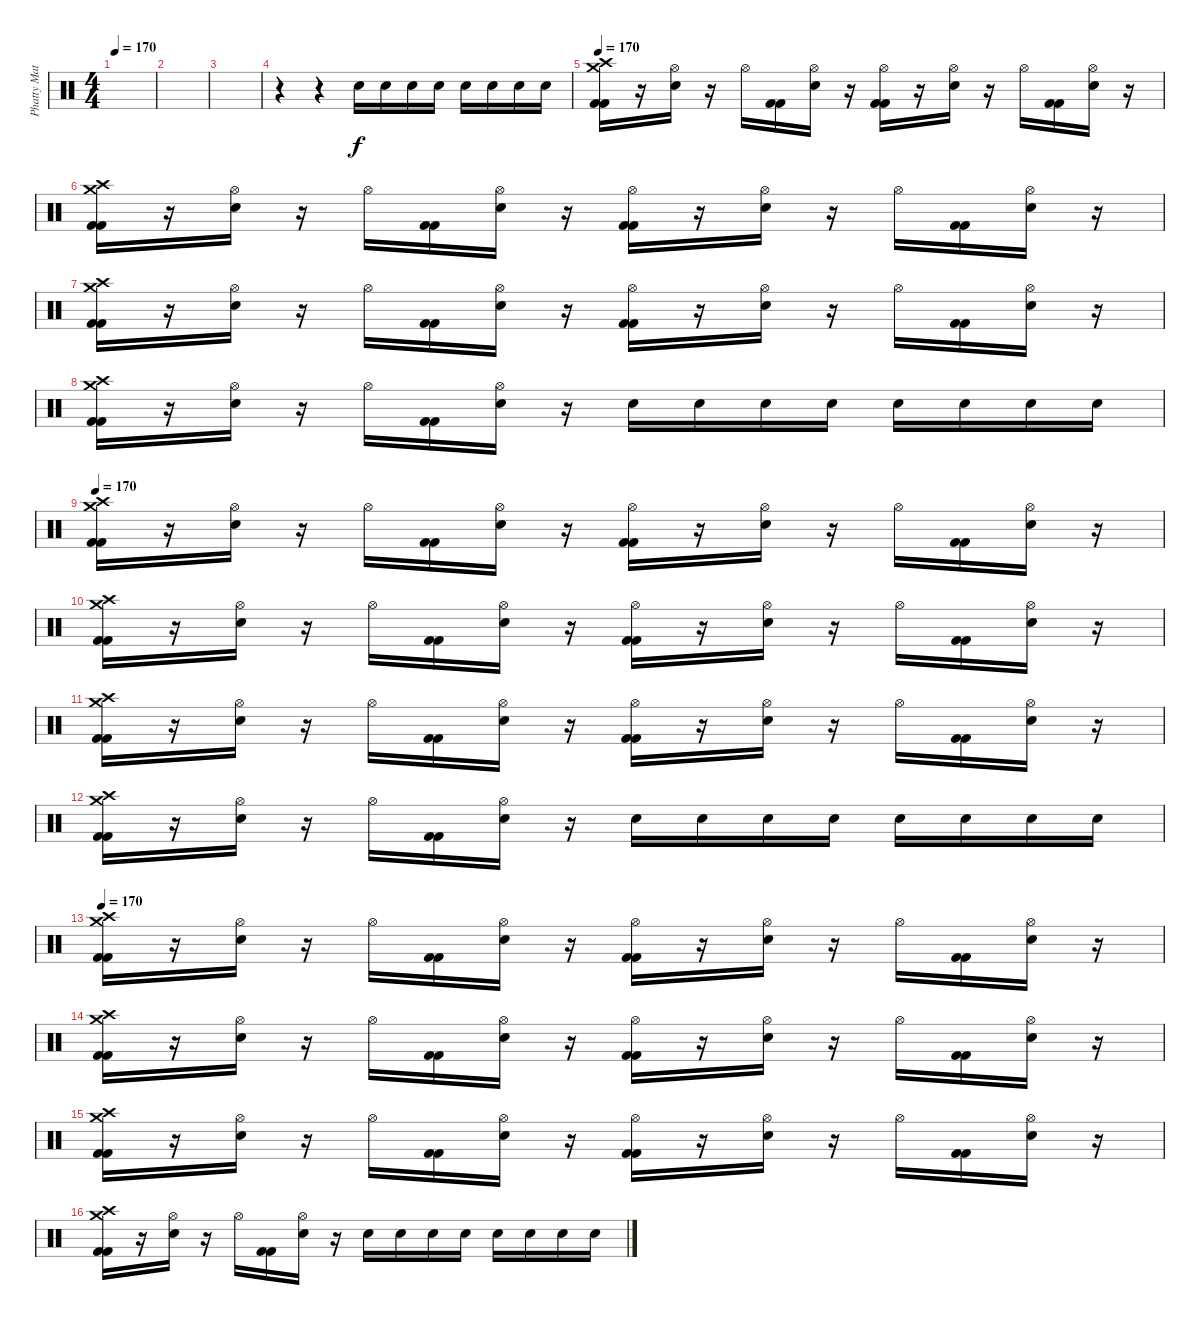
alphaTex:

\track ("Phatty Matty Withrow (Drums)" "Phatty Mat") {instrument percussion}
\staff {score}
\articulation defaults
\ts (4 4)
\tempo 170
\clef neutral
\ks c
|
|
|
r.4 r.4 "Electric Snare (hit)".16 "Electric Snare (hit)".16 "Electric Snare (hit)".16 "Electric Snare (hit)".16 "Electric Snare (hit)".16 "Electric Snare (hit)".16 "Electric Snare (hit)".16 "Electric Snare (hit)".16 |
\tempo 170
("Crash medium (hit)" "Crash high (hit)" "Kick (hit) 2" "Kick (hit) 2").16 r.16 ("Hi-Hat (open)" "Electric Snare (hit)").16 r.16 "Hi-Hat (open)".16 ("Kick (hit) 2" "Kick (hit) 2").16 ("Hi-Hat (open)" "Electric Snare (hit)").16 r.16 ("Hi-Hat (open)" "Kick (hit) 2" "Kick (hit) 2").16 r.16 ("Hi-Hat (open)" "Electric Snare (hit)").16 r.16 "Hi-Hat (open)".16 ("Kick (hit) 2" "Kick (hit) 2").16 ("Hi-Hat (open)" "Electric Snare (hit)").16 r.16 |
("Crash medium (hit)" "Crash high (hit)" "Kick (hit) 2" "Kick (hit) 2").16 r.16 ("Hi-Hat (open)" "Electric Snare (hit)").16 r.16 "Hi-Hat (open)".16 ("Kick (hit) 2" "Kick (hit) 2").16 ("Hi-Hat (open)" "Electric Snare (hit)").16 r.16 ("Hi-Hat (open)" "Kick (hit) 2" "Kick (hit) 2").16 r.16 ("Hi-Hat (open)" "Electric Snare (hit)").16 r.16 "Hi-Hat (open)".16 ("Kick (hit) 2" "Kick (hit) 2").16 ("Hi-Hat (open)" "Electric Snare (hit)").16 r.16 |
("Crash medium (hit)" "Crash high (hit)" "Kick (hit) 2" "Kick (hit) 2").16 r.16 ("Hi-Hat (open)" "Electric Snare (hit)").16 r.16 "Hi-Hat (open)".16 ("Kick (hit) 2" "Kick (hit) 2").16 ("Hi-Hat (open)" "Electric Snare (hit)").16 r.16 ("Hi-Hat (open)" "Kick (hit) 2" "Kick (hit) 2").16 r.16 ("Hi-Hat (open)" "Electric Snare (hit)").16 r.16 "Hi-Hat (open)".16 ("Kick (hit) 2" "Kick (hit) 2").16 ("Hi-Hat (open)" "Electric Snare (hit)").16 r.16 |
("Crash medium (hit)" "Crash high (hit)" "Kick (hit) 2" "Kick (hit) 2").16 r.16 ("Hi-Hat (open)" "Electric Snare (hit)").16 r.16 "Hi-Hat (open)".16 ("Kick (hit) 2" "Kick (hit) 2").16 ("Hi-Hat (open)" "Electric Snare (hit)").16 r.16 "Electric Snare (hit)".16 "Electric Snare (hit)".16 "Electric Snare (hit)".16 "Electric Snare (hit)".16 "Electric Snare (hit)".16 "Electric Snare (hit)".16 "Electric Snare (hit)".16 "Electric Snare (hit)".16 |
\tempo 170
("Crash medium (hit)" "Crash high (hit)" "Kick (hit) 2" "Kick (hit) 2").16 r.16 ("Hi-Hat (open)" "Electric Snare (hit)").16 r.16 "Hi-Hat (open)".16 ("Kick (hit) 2" "Kick (hit) 2").16 ("Hi-Hat (open)" "Electric Snare (hit)").16 r.16 ("Hi-Hat (open)" "Kick (hit) 2" "Kick (hit) 2").16 r.16 ("Hi-Hat (open)" "Electric Snare (hit)").16 r.16 "Hi-Hat (open)".16 ("Kick (hit) 2" "Kick (hit) 2").16 ("Hi-Hat (open)" "Electric Snare (hit)").16 r.16 |
("Crash medium (hit)" "Crash high (hit)" "Kick (hit) 2" "Kick (hit) 2").16 r.16 ("Hi-Hat (open)" "Electric Snare (hit)").16 r.16 "Hi-Hat (open)".16 ("Kick (hit) 2" "Kick (hit) 2").16 ("Hi-Hat (open)" "Electric Snare (hit)").16 r.16 ("Hi-Hat (open)" "Kick (hit) 2" "Kick (hit) 2").16 r.16 ("Hi-Hat (open)" "Electric Snare (hit)").16 r.16 "Hi-Hat (open)".16 ("Kick (hit) 2" "Kick (hit) 2").16 ("Hi-Hat (open)" "Electric Snare (hit)").16 r.16 |
("Crash medium (hit)" "Crash high (hit)" "Kick (hit) 2" "Kick (hit) 2").16 r.16 ("Hi-Hat (open)" "Electric Snare (hit)").16 r.16 "Hi-Hat (open)".16 ("Kick (hit) 2" "Kick (hit) 2").16 ("Hi-Hat (open)" "Electric Snare (hit)").16 r.16 ("Hi-Hat (open)" "Kick (hit) 2" "Kick (hit) 2").16 r.16 ("Hi-Hat (open)" "Electric Snare (hit)").16 r.16 "Hi-Hat (open)".16 ("Kick (hit) 2" "Kick (hit) 2").16 ("Hi-Hat (open)" "Electric Snare (hit)").16 r.16 |
("Crash medium (hit)" "Crash high (hit)" "Kick (hit) 2" "Kick (hit) 2").16 r.16 ("Hi-Hat (open)" "Electric Snare (hit)").16 r.16 "Hi-Hat (open)".16 ("Kick (hit) 2" "Kick (hit) 2").16 ("Hi-Hat (open)" "Electric Snare (hit)").16 r.16 "Electric Snare (hit)".16 "Electric Snare (hit)".16 "Electric Snare (hit)".16 "Electric Snare (hit)".16 "Electric Snare (hit)".16 "Electric Snare (hit)".16 "Electric Snare (hit)".16 "Electric Snare (hit)".16 |
\tempo 170
("Crash medium (hit)" "Crash high (hit)" "Kick (hit) 2" "Kick (hit) 2").16 r.16 ("Hi-Hat (open)" "Electric Snare (hit)").16 r.16 "Hi-Hat (open)".16 ("Kick (hit) 2" "Kick (hit) 2").16 ("Hi-Hat (open)" "Electric Snare (hit)").16 r.16 ("Hi-Hat (open)" "Kick (hit) 2" "Kick (hit) 2").16 r.16 ("Hi-Hat (open)" "Electric Snare (hit)").16 r.16 "Hi-Hat (open)".16 ("Kick (hit) 2" "Kick (hit) 2").16 ("Hi-Hat (open)" "Electric Snare (hit)").16 r.16 |
("Crash medium (hit)" "Crash high (hit)" "Kick (hit) 2" "Kick (hit) 2").16 r.16 ("Hi-Hat (open)" "Electric Snare (hit)").16 r.16 "Hi-Hat (open)".16 ("Kick (hit) 2" "Kick (hit) 2").16 ("Hi-Hat (open)" "Electric Snare (hit)").16 r.16 ("Hi-Hat (open)" "Kick (hit) 2" "Kick (hit) 2").16 r.16 ("Hi-Hat (open)" "Electric Snare (hit)").16 r.16 "Hi-Hat (open)".16 ("Kick (hit) 2" "Kick (hit) 2").16 ("Hi-Hat (open)" "Electric Snare (hit)").16 r.16 |
("Crash medium (hit)" "Crash high (hit)" "Kick (hit) 2" "Kick (hit) 2").16 r.16 ("Hi-Hat (open)" "Electric Snare (hit)").16 r.16 "Hi-Hat (open)".16 ("Kick (hit) 2" "Kick (hit) 2").16 ("Hi-Hat (open)" "Electric Snare (hit)").16 r.16 ("Hi-Hat (open)" "Kick (hit) 2" "Kick (hit) 2").16 r.16 ("Hi-Hat (open)" "Electric Snare (hit)").16 r.16 "Hi-Hat (open)".16 ("Kick (hit) 2" "Kick (hit) 2").16 ("Hi-Hat (open)" "Electric Snare (hit)").16 r.16 |
("Crash medium (hit)" "Crash high (hit)" "Kick (hit) 2" "Kick (hit) 2").16 r.16 ("Hi-Hat (open)" "Electric Snare (hit)").16 r.16 "Hi-Hat (open)".16 ("Kick (hit) 2" "Kick (hit) 2").16 ("Hi-Hat (open)" "Electric Snare (hit)").16 r.16 "Electric Snare (hit)".16 "Electric Snare (hit)".16 "Electric Snare (hit)".16 "Electric Snare (hit)".16 "Electric Snare (hit)".16 "Electric Snare (hit)".16 "Electric Snare (hit)".16 "Electric Snare (hit)".16
